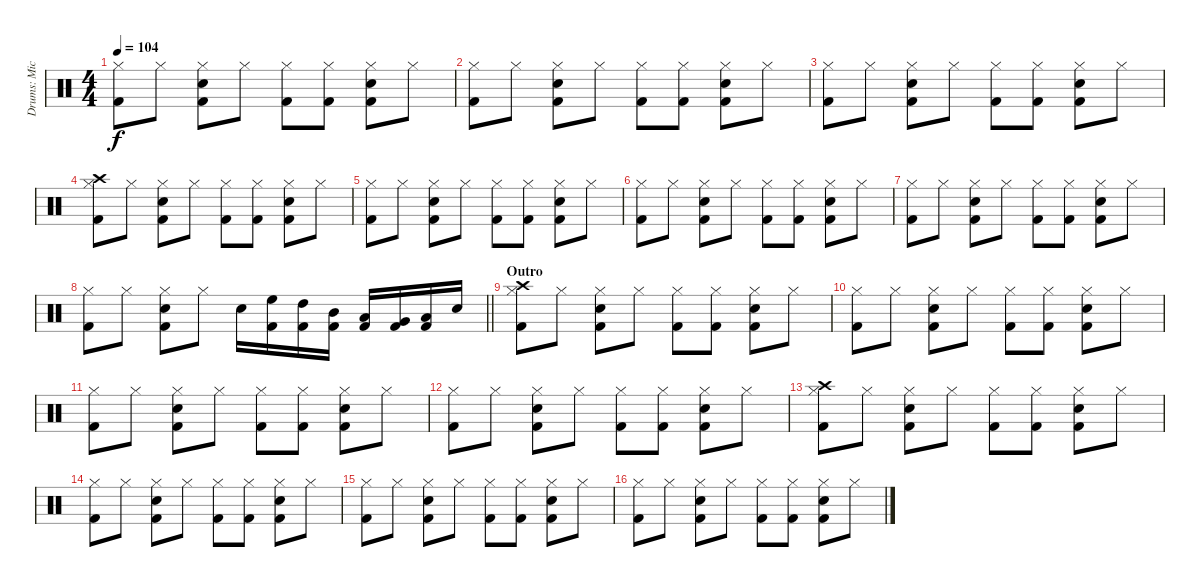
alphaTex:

\track ("Drums: Mick Fleetwood" "Drums: Mic") {instrument percussion}
\staff {score}
\articulation defaults
\ts (4 4)
\tempo 104
\clef neutral
\ks c
("Hi-Hat (closed)" "Kick (hit) 2").8{dy f} "Hi-Hat (closed)".8 ("Hi-Hat (closed)" "Snare (hit) 2" "Kick (hit) 2").8 "Hi-Hat (closed)".8 ("Hi-Hat (closed)" "Kick (hit) 2").8 ("Hi-Hat (closed)" "Kick (hit) 2").8 ("Hi-Hat (closed)" "Snare (hit) 2" "Kick (hit) 2").8 "Hi-Hat (closed)".8 |
("Hi-Hat (closed)" "Kick (hit) 2").8 "Hi-Hat (closed)".8 ("Hi-Hat (closed)" "Snare (hit) 2" "Kick (hit) 2").8 "Hi-Hat (closed)".8 ("Hi-Hat (closed)" "Kick (hit) 2").8 ("Hi-Hat (closed)" "Kick (hit) 2").8 ("Hi-Hat (closed)" "Snare (hit) 2" "Kick (hit) 2").8 "Hi-Hat (closed)".8 |
("Hi-Hat (closed)" "Kick (hit) 2").8 "Hi-Hat (closed)".8 ("Hi-Hat (closed)" "Snare (hit) 2" "Kick (hit) 2").8 "Hi-Hat (closed)".8 ("Hi-Hat (closed)" "Kick (hit) 2").8 ("Hi-Hat (closed)" "Kick (hit) 2").8 ("Hi-Hat (closed)" "Snare (hit) 2" "Kick (hit) 2").8 "Hi-Hat (closed)".8 |
("Crash high (hit)" "Hi-Hat (closed)" "Kick (hit) 2").8 "Hi-Hat (closed)".8 ("Hi-Hat (closed)" "Snare (hit) 2" "Kick (hit) 2").8 "Hi-Hat (closed)".8 ("Hi-Hat (closed)" "Kick (hit) 2").8 ("Hi-Hat (closed)" "Kick (hit) 2").8 ("Hi-Hat (closed)" "Snare (hit) 2" "Kick (hit) 2").8 "Hi-Hat (closed)".8 |
("Hi-Hat (closed)" "Kick (hit) 2").8 "Hi-Hat (closed)".8 ("Hi-Hat (closed)" "Snare (hit) 2" "Kick (hit) 2").8 "Hi-Hat (closed)".8 ("Hi-Hat (closed)" "Kick (hit) 2").8 ("Hi-Hat (closed)" "Kick (hit) 2").8 ("Hi-Hat (closed)" "Snare (hit) 2" "Kick (hit) 2").8 "Hi-Hat (closed)".8 |
("Hi-Hat (closed)" "Kick (hit) 2").8 "Hi-Hat (closed)".8 ("Hi-Hat (closed)" "Snare (hit) 2" "Kick (hit) 2").8 "Hi-Hat (closed)".8 ("Hi-Hat (closed)" "Kick (hit) 2").8 ("Hi-Hat (closed)" "Kick (hit) 2").8 ("Hi-Hat (closed)" "Snare (hit) 2" "Kick (hit) 2").8 "Hi-Hat (closed)".8 |
("Hi-Hat (closed)" "Kick (hit) 2").8 "Hi-Hat (closed)".8 ("Hi-Hat (closed)" "Snare (hit) 2" "Kick (hit) 2").8 "Hi-Hat (closed)".8 ("Hi-Hat (closed)" "Kick (hit) 2").8 ("Hi-Hat (closed)" "Kick (hit) 2").8 ("Hi-Hat (closed)" "Snare (hit) 2" "Kick (hit) 2").8 "Hi-Hat (closed)".8 |
\barLineRight lightlight
("Hi-Hat (closed)" "Kick (hit) 2").8 "Hi-Hat (closed)".8 ("Hi-Hat (closed)" "Snare (hit) 2" "Kick (hit) 2").8 "Hi-Hat (closed)".8 "Snare (hit) 2".16 ("High Floor Tom (hit)" "Kick (hit) 2").16 ("High Tom (hit)" "Kick (hit) 2").16 ("Mid Tom (hit)" "Kick (hit) 2").16 ("Low Tom (hit)" "Kick (hit) 2").16 ("Very Low Tom (hit)" "Kick (hit) 2").16 ("Low Floor Tom (hit)" "Kick (hit) 2").16 "Snare (hit) 2".16 |
\section ("" "Outro")
("Crash high (hit)" "Hi-Hat (closed)" "Kick (hit) 2").8 "Hi-Hat (closed)".8 ("Hi-Hat (closed)" "Snare (hit) 2" "Kick (hit) 2").8 "Hi-Hat (closed)".8 ("Hi-Hat (closed)" "Kick (hit) 2").8 ("Hi-Hat (closed)" "Kick (hit) 2").8 ("Hi-Hat (closed)" "Snare (hit) 2" "Kick (hit) 2").8 "Hi-Hat (closed)".8 |
("Hi-Hat (closed)" "Kick (hit) 2").8 "Hi-Hat (closed)".8 ("Hi-Hat (closed)" "Snare (hit) 2" "Kick (hit) 2").8 "Hi-Hat (closed)".8 ("Hi-Hat (closed)" "Kick (hit) 2").8 ("Hi-Hat (closed)" "Kick (hit) 2").8 ("Hi-Hat (closed)" "Snare (hit) 2" "Kick (hit) 2").8 "Hi-Hat (closed)".8 |
("Hi-Hat (closed)" "Kick (hit) 2").8 "Hi-Hat (closed)".8 ("Hi-Hat (closed)" "Snare (hit) 2" "Kick (hit) 2").8 "Hi-Hat (closed)".8 ("Hi-Hat (closed)" "Kick (hit) 2").8 ("Hi-Hat (closed)" "Kick (hit) 2").8 ("Hi-Hat (closed)" "Snare (hit) 2" "Kick (hit) 2").8 "Hi-Hat (closed)".8 |
("Hi-Hat (closed)" "Kick (hit) 2").8 "Hi-Hat (closed)".8 ("Hi-Hat (closed)" "Snare (hit) 2" "Kick (hit) 2").8 "Hi-Hat (closed)".8 ("Hi-Hat (closed)" "Kick (hit) 2").8 ("Hi-Hat (closed)" "Kick (hit) 2").8 ("Hi-Hat (closed)" "Snare (hit) 2" "Kick (hit) 2").8 "Hi-Hat (closed)".8 |
("Crash high (hit)" "Hi-Hat (closed)" "Kick (hit) 2").8 "Hi-Hat (closed)".8 ("Hi-Hat (closed)" "Snare (hit) 2" "Kick (hit) 2").8 "Hi-Hat (closed)".8 ("Hi-Hat (closed)" "Kick (hit) 2").8 ("Hi-Hat (closed)" "Kick (hit) 2").8 ("Hi-Hat (closed)" "Snare (hit) 2" "Kick (hit) 2").8 "Hi-Hat (closed)".8 |
("Hi-Hat (closed)" "Kick (hit) 2").8 "Hi-Hat (closed)".8 ("Hi-Hat (closed)" "Snare (hit) 2" "Kick (hit) 2").8 "Hi-Hat (closed)".8 ("Hi-Hat (closed)" "Kick (hit) 2").8 ("Hi-Hat (closed)" "Kick (hit) 2").8 ("Hi-Hat (closed)" "Snare (hit) 2" "Kick (hit) 2").8 "Hi-Hat (closed)".8 |
("Hi-Hat (closed)" "Kick (hit) 2").8 "Hi-Hat (closed)".8 ("Hi-Hat (closed)" "Snare (hit) 2" "Kick (hit) 2").8 "Hi-Hat (closed)".8 ("Hi-Hat (closed)" "Kick (hit) 2").8 ("Hi-Hat (closed)" "Kick (hit) 2").8 ("Hi-Hat (closed)" "Snare (hit) 2" "Kick (hit) 2").8 "Hi-Hat (closed)".8 |
("Hi-Hat (closed)" "Kick (hit) 2").8 "Hi-Hat (closed)".8 ("Hi-Hat (closed)" "Snare (hit) 2" "Kick (hit) 2").8 "Hi-Hat (closed)".8 ("Hi-Hat (closed)" "Kick (hit) 2").8 ("Hi-Hat (closed)" "Kick (hit) 2").8 ("Hi-Hat (closed)" "Snare (hit) 2" "Kick (hit) 2").8 "Hi-Hat (closed)".8
